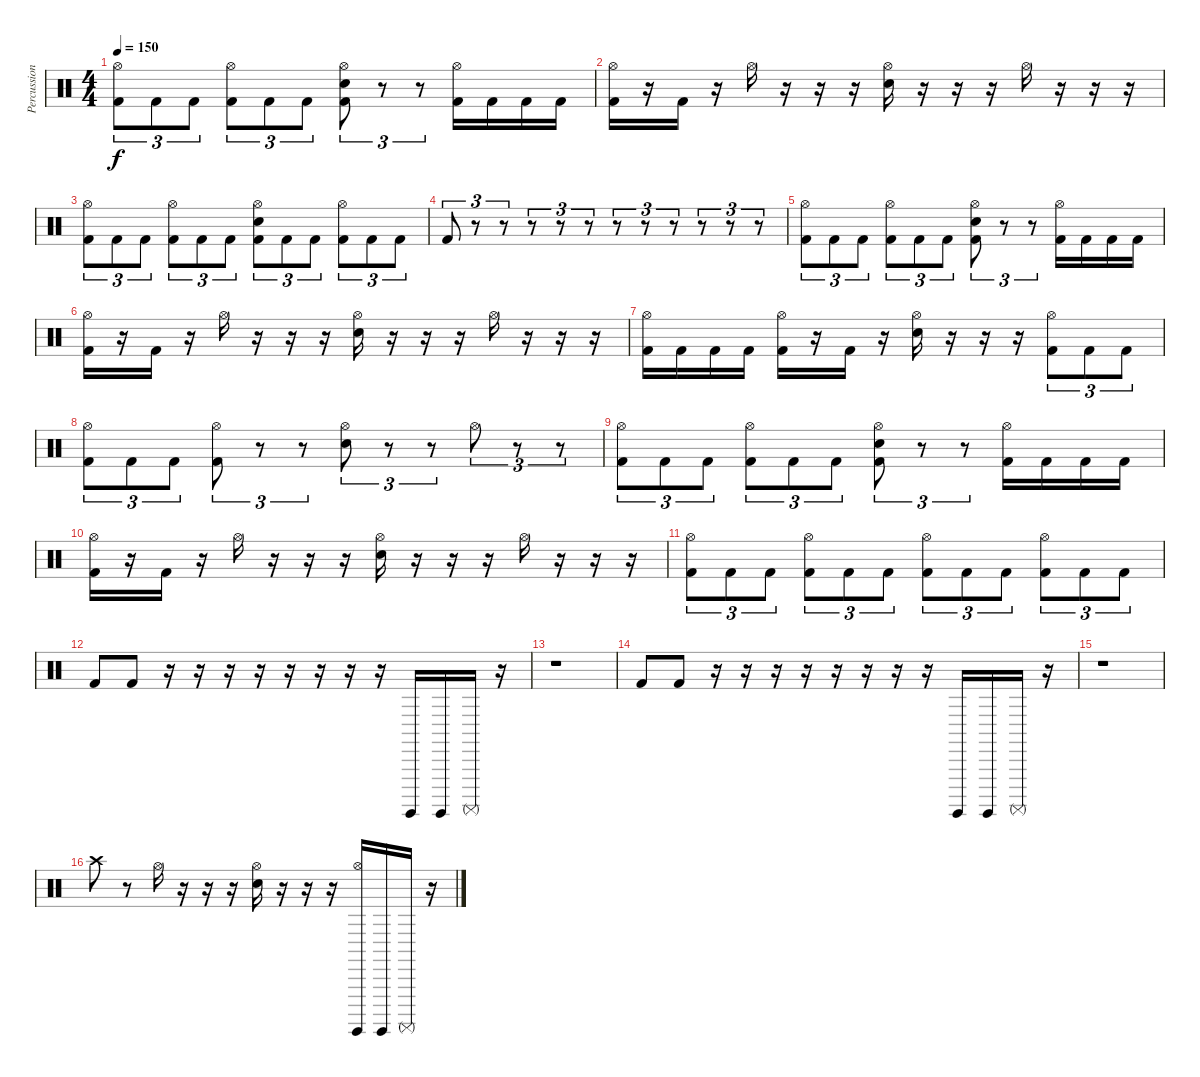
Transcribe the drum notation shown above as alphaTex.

\track ("Percussions" "Percussion") {instrument percussion}
\staff {score}
\articulation defaults
\ts (4 4)
\tempo 150
\clef neutral
\ks c
("Hi-Hat (open)" "Kick (hit) 2").8{tu (3 2) dy f} "Kick (hit) 2".8{tu (3 2)} "Kick (hit) 2".8{tu (3 2)} ("Hi-Hat (open)" "Kick (hit) 2").8{tu (3 2)} "Kick (hit) 2".8{tu (3 2)} "Kick (hit) 2".8{tu (3 2)} ("Hi-Hat (open)" "Electric Snare (hit)" "Kick (hit) 2").8{tu (3 2)} r.8{tu (3 2)} r.8{tu (3 2)} ("Hi-Hat (open)" "Kick (hit) 2").16 "Kick (hit) 2".16 "Kick (hit) 2".16 "Kick (hit) 2".16 |
("Hi-Hat (open)" "Kick (hit) 2").16 r.16 "Kick (hit) 2".16 r.16 "Hi-Hat (open)".16 r.16 r.16 r.16 ("Hi-Hat (open)" "Electric Snare (hit)").16 r.16 r.16 r.16 "Hi-Hat (open)".16 r.16 r.16 r.16 |
("Hi-Hat (open)" "Kick (hit) 2").8{tu (3 2)} "Kick (hit) 2".8{tu (3 2)} "Kick (hit) 2".8{tu (3 2)} ("Hi-Hat (open)" "Kick (hit) 2").8{tu (3 2)} "Kick (hit) 2".8{tu (3 2)} "Kick (hit) 2".8{tu (3 2)} ("Hi-Hat (open)" "Electric Snare (hit)" "Kick (hit) 2").8{tu (3 2)} "Kick (hit) 2".8{tu (3 2)} "Kick (hit) 2".8{tu (3 2)} ("Hi-Hat (open)" "Kick (hit) 2").8{tu (3 2)} "Kick (hit) 2".8{tu (3 2)} "Kick (hit) 2".8{tu (3 2)} |
"Kick (hit) 2".8{tu (3 2)} r.8{tu (3 2)} r.8{tu (3 2)} r.8{tu (3 2)} r.8{tu (3 2)} r.8{tu (3 2)} r.8{tu (3 2)} r.8{tu (3 2)} r.8{tu (3 2)} r.8{tu (3 2)} r.8{tu (3 2)} r.8{tu (3 2)} |
("Hi-Hat (open)" "Kick (hit) 2").8{tu (3 2)} "Kick (hit) 2".8{tu (3 2)} "Kick (hit) 2".8{tu (3 2)} ("Hi-Hat (open)" "Kick (hit) 2").8{tu (3 2)} "Kick (hit) 2".8{tu (3 2)} "Kick (hit) 2".8{tu (3 2)} ("Hi-Hat (open)" "Electric Snare (hit)" "Kick (hit) 2").8{tu (3 2)} r.8{tu (3 2)} r.8{tu (3 2)} ("Hi-Hat (open)" "Kick (hit) 2").16 "Kick (hit) 2".16 "Kick (hit) 2".16 "Kick (hit) 2".16 |
("Hi-Hat (open)" "Kick (hit) 2").16 r.16 "Kick (hit) 2".16 r.16 "Hi-Hat (open)".16 r.16 r.16 r.16 ("Hi-Hat (open)" "Electric Snare (hit)").16 r.16 r.16 r.16 "Hi-Hat (open)".16 r.16 r.16 r.16 |
("Hi-Hat (open)" "Kick (hit) 2").16 "Kick (hit) 2".16 "Kick (hit) 2".16 "Kick (hit) 2".16 ("Hi-Hat (open)" "Kick (hit) 2").16 r.16 "Kick (hit) 2".16 r.16 ("Hi-Hat (open)" "Electric Snare (hit)").16 r.16 r.16 r.16 ("Hi-Hat (open)" "Kick (hit) 2").8{tu (3 2)} "Kick (hit) 2".8{tu (3 2)} "Kick (hit) 2".8{tu (3 2)} |
("Hi-Hat (open)" "Kick (hit) 2").8{tu (3 2)} "Kick (hit) 2".8{tu (3 2)} "Kick (hit) 2".8{tu (3 2)} ("Hi-Hat (open)" "Kick (hit) 2").8{tu (3 2)} r.8{tu (3 2)} r.8{tu (3 2)} ("Hi-Hat (open)" "Electric Snare (hit)").8{tu (3 2)} r.8{tu (3 2)} r.8{tu (3 2)} "Hi-Hat (open)".8{tu (3 2)} r.8{tu (3 2)} r.8{tu (3 2)} |
("Hi-Hat (open)" "Kick (hit) 2").8{tu (3 2)} "Kick (hit) 2".8{tu (3 2)} "Kick (hit) 2".8{tu (3 2)} ("Hi-Hat (open)" "Kick (hit) 2").8{tu (3 2)} "Kick (hit) 2".8{tu (3 2)} "Kick (hit) 2".8{tu (3 2)} ("Hi-Hat (open)" "Electric Snare (hit)" "Kick (hit) 2").8{tu (3 2)} r.8{tu (3 2)} r.8{tu (3 2)} ("Hi-Hat (open)" "Kick (hit) 2").16 "Kick (hit) 2".16 "Kick (hit) 2".16 "Kick (hit) 2".16 |
("Hi-Hat (open)" "Kick (hit) 2").16 r.16 "Kick (hit) 2".16 r.16 "Hi-Hat (open)".16 r.16 r.16 r.16 ("Hi-Hat (open)" "Electric Snare (hit)").16 r.16 r.16 r.16 "Hi-Hat (open)".16 r.16 r.16 r.16 |
("Hi-Hat (open)" "Kick (hit) 2").8{tu (3 2)} "Kick (hit) 2".8{tu (3 2)} "Kick (hit) 2".8{tu (3 2)} ("Hi-Hat (open)" "Kick (hit) 2").8{tu (3 2)} "Kick (hit) 2".8{tu (3 2)} "Kick (hit) 2".8{tu (3 2)} ("Hi-Hat (open)" "Kick (hit) 2").8{tu (3 2)} "Kick (hit) 2".8{tu (3 2)} "Kick (hit) 2".8{tu (3 2)} ("Hi-Hat (open)" "Kick (hit) 2").8{tu (3 2)} "Kick (hit) 2".8{tu (3 2)} "Kick (hit) 2".8{tu (3 2)} |
"Kick (hit) 2".8 "Kick (hit) 2".8 r.16 r.16 r.16 r.16 r.16 r.16 r.16 r.16 "Surdo (hit)".16 "Surdo (hit)".16 "Surdo (mute)".16 r.16 |
r.1 |
"Kick (hit) 2".8 "Kick (hit) 2".8 r.16 r.16 r.16 r.16 r.16 r.16 r.16 r.16 "Surdo (hit)".16 "Surdo (hit)".16 "Surdo (mute)".16 r.16 |
r.1 |
"Crash high (hit)".8 r.8 "Hi-Hat (open)".16 r.16 r.16 r.16 ("Hi-Hat (open)" "Electric Snare (hit)").16 r.16 r.16 r.16 ("Hi-Hat (open)" "Surdo (hit)").16 "Surdo (hit)".16 "Surdo (mute)".16 r.16
